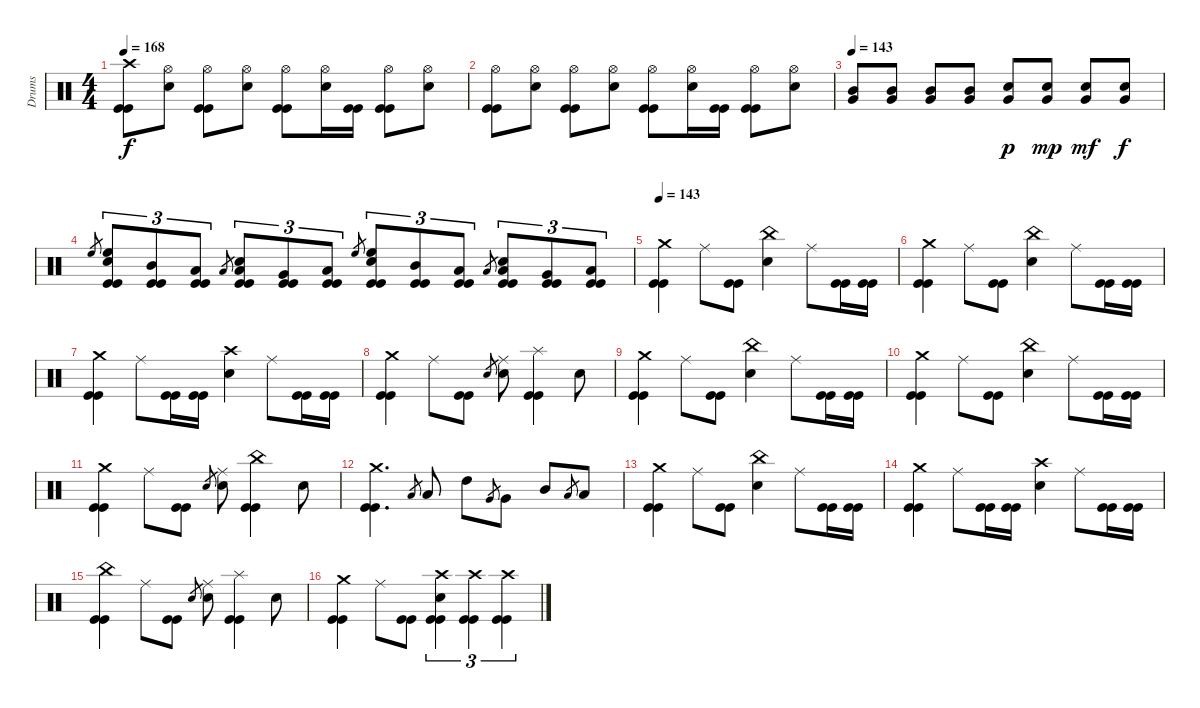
\track ("Drums" "Drums") {instrument percussion}
\staff {score}
\articulation defaults
\ts (4 4)
\tempo 168
\clef neutral
\ks c
("Crash high (hit)" "Kick (hit)" "Kick (hit)").8{dy f} ("Hi-Hat (open)" "Electric Snare (hit)").8 ("Hi-Hat (open)" "Kick (hit)" "Kick (hit)").8 ("Hi-Hat (open)" "Electric Snare (hit)").8 ("Hi-Hat (open)" "Kick (hit)" "Kick (hit)").8 ("Hi-Hat (open)" "Electric Snare (hit)").16 ("Kick (hit)" "Kick (hit)").16 ("Hi-Hat (open)" "Kick (hit)" "Kick (hit)").8 ("Hi-Hat (open)" "Electric Snare (hit)").8 |
("Hi-Hat (open)" "Kick (hit)" "Kick (hit)").8 ("Hi-Hat (open)" "Electric Snare (hit)").8 ("Hi-Hat (open)" "Kick (hit)" "Kick (hit)").8 ("Hi-Hat (open)" "Electric Snare (hit)").8 ("Hi-Hat (open)" "Kick (hit)" "Kick (hit)").8 ("Hi-Hat (open)" "Electric Snare (hit)").16 ("Kick (hit)" "Kick (hit)").16 ("Hi-Hat (open)" "Kick (hit)" "Kick (hit)").8 ("Hi-Hat (open)" "Electric Snare (hit)").8 |
\tempo 143
("Mid Tom (hit)" "Very Low Tom (hit)").8 ("Mid Tom (hit)" "Very Low Tom (hit)").8 ("Mid Tom (hit)" "Very Low Tom (hit)").8 ("Mid Tom (hit)" "Very Low Tom (hit)").8 ("Electric Snare (hit)" "Very Low Tom (hit)").8{dy p} ("Electric Snare (hit)" "Very Low Tom (hit)").8{dy mp} ("Electric Snare (hit)" "Very Low Tom (hit)").8{dy mf} ("Electric Snare (hit)" "Very Low Tom (hit)").8{dy f} |
"High Floor Tom (hit)".8{gr} ("Electric Snare (hit)" "High Floor Tom (hit)" "Kick (hit)" "Kick (hit)").8{tu (3 2)} ("Mid Tom (hit)" "Kick (hit)" "Kick (hit)").8{tu (3 2)} ("Low Tom (hit)" "Kick (hit)" "Kick (hit)").8{tu (3 2)} "Low Tom (hit)".8{gr} ("Low Tom (hit)" "Electric Snare (hit)" "Kick (hit)" "Kick (hit)").8{tu (3 2)} ("Very Low Tom (hit)" "Kick (hit)" "Kick (hit)").8{tu (3 2)} ("Low Floor Tom (hit)" "Kick (hit)" "Kick (hit)").8{tu (3 2)} "High Floor Tom (hit)".8{gr} ("Electric Snare (hit)" "High Floor Tom (hit)" "Kick (hit)" "Kick (hit)").8{tu (3 2)} ("Mid Tom (hit)" "Kick (hit)" "Kick (hit)").8{tu (3 2)} ("Low Tom (hit)" "Kick (hit)" "Kick (hit)").8{tu (3 2)} "Low Tom (hit)".8{gr} ("Low Tom (hit)" "Electric Snare (hit)" "Kick (hit)" "Kick (hit)").8{tu (3 2)} ("Very Low Tom (hit)" "Kick (hit)" "Kick (hit)").8{tu (3 2)} ("Low Floor Tom (hit)" "Kick (hit)" "Kick (hit)").8{tu (3 2)} |
\tempo 143
("Crash medium (hit)" "Kick (hit)" "Kick (hit)").4 "Ride (middle)".8 ("Kick (hit)" "Kick (hit)").8 ("China (hit)" "Electric Snare (hit)").4 "Ride (middle)".8 ("Kick (hit)" "Kick (hit)").16 ("Kick (hit)" "Kick (hit)").16 |
("Crash medium (hit)" "Kick (hit)" "Kick (hit)").4 "Ride (middle)".8 ("Kick (hit)" "Kick (hit)").8 ("China (hit)" "Electric Snare (hit)").4 "Ride (middle)".8 ("Kick (hit)" "Kick (hit)").16 ("Kick (hit)" "Kick (hit)").16 |
("Crash medium (hit)" "Kick (hit)" "Kick (hit)").4 "Ride (middle)".8 ("Kick (hit)" "Kick (hit)").16 ("Kick (hit)" "Kick (hit)").16 ("Crash high (hit)" "Electric Snare (hit)").4 "Ride (middle)".8 ("Kick (hit)" "Kick (hit)").16 ("Kick (hit)" "Kick (hit)").16 |
("Crash medium (hit)" "Kick (hit)" "Kick (hit)").4 "Ride (middle)".8 ("Kick (hit)" "Kick (hit)").8 "Electric Snare (hit)".8{gr} ("Ride (middle)" "Electric Snare (hit)").8 ("Splash (hit)" "Kick (hit)" "Kick (hit)").4 "Electric Snare (hit)".8 |
("Crash medium (hit)" "Kick (hit)" "Kick (hit)").4 "Ride (middle)".8 ("Kick (hit)" "Kick (hit)").8 ("China (hit)" "Electric Snare (hit)").4 "Ride (middle)".8 ("Kick (hit)" "Kick (hit)").16 ("Kick (hit)" "Kick (hit)").16 |
("Crash medium (hit)" "Kick (hit)" "Kick (hit)").4 "Ride (middle)".8 ("Kick (hit)" "Kick (hit)").8 ("China (hit)" "Electric Snare (hit)").4 "Ride (middle)".8 ("Kick (hit)" "Kick (hit)").16 ("Kick (hit)" "Kick (hit)").16 |
("Crash medium (hit)" "Kick (hit)" "Kick (hit)").4 "Ride (middle)".8 ("Kick (hit)" "Kick (hit)").8 "Electric Snare (hit)".8{gr} ("Ride (middle)" "Electric Snare (hit)").8 ("China (hit)" "Kick (hit)" "Kick (hit)").4 "Electric Snare (hit)".8 |
("Crash medium (hit)" "Kick (hit)" "Kick (hit)").4{d} "Low Tom (hit)".8{gr} "Low Tom (hit)".8 "High Tom (hit)".8 "Very Low Tom (hit)".8{gr} "Very Low Tom (hit)".8 "Mid Tom (hit)".8 "Low Floor Tom (hit)".8{gr} "Low Floor Tom (hit)".8 |
("Crash medium (hit)" "Kick (hit)" "Kick (hit)").4 "Ride (middle)".8 ("Kick (hit)" "Kick (hit)").8 ("China (hit)" "Electric Snare (hit)").4 "Ride (middle)".8 ("Kick (hit)" "Kick (hit)").16 ("Kick (hit)" "Kick (hit)").16 |
("Crash medium (hit)" "Kick (hit)" "Kick (hit)").4 "Ride (middle)".8 ("Kick (hit)" "Kick (hit)").16 ("Kick (hit)" "Kick (hit)").16 ("Crash high (hit)" "Electric Snare (hit)").4 "Ride (middle)".8 ("Kick (hit)" "Kick (hit)").16 ("Kick (hit)" "Kick (hit)").16 |
("China (hit)" "Kick (hit)" "Kick (hit)").4 "Ride (middle)".8 ("Kick (hit)" "Kick (hit)").8 "Electric Snare (hit)".8{gr} ("Ride (middle)" "Electric Snare (hit)").8 ("Splash (hit)" "Kick (hit)" "Kick (hit)").4 "Electric Snare (hit)".8 |
("Crash medium (hit)" "Kick (hit)" "Kick (hit)").4 "Ride (middle)".8 ("Kick (hit)" "Kick (hit)").8 ("Crash high (hit)" "Electric Snare (hit)" "Kick (hit)" "Kick (hit)").4{tu (3 2)} ("Crash high (hit)" "Kick (hit)" "Kick (hit)").4{tu (3 2)} ("Crash high (hit)" "Kick (hit)" "Kick (hit)").4{tu (3 2)}
